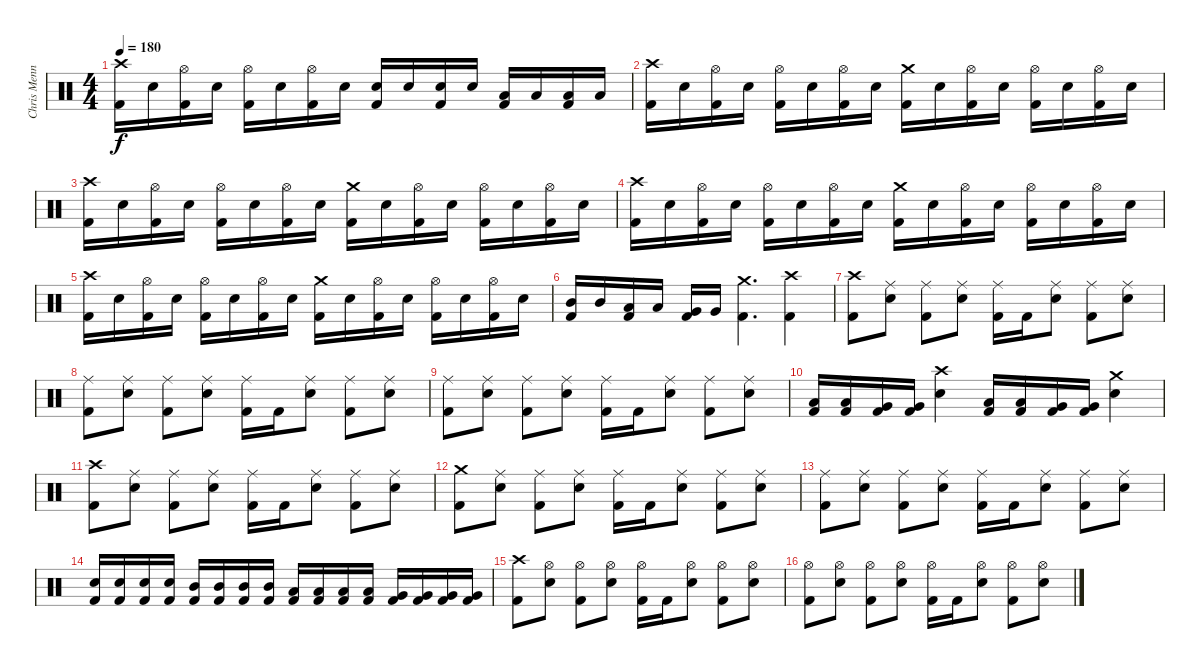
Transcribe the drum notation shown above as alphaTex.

\track ("Chris Menning" "Chris Menn") {instrument percussion}
\staff {score}
\articulation defaults
\ts (4 4)
\tempo 180
\clef neutral
\ks c
("Crash high (hit)" "Kick (hit) 2").16{dy f} "Electric Snare (hit)".16 ("Hi-Hat (open)" "Kick (hit) 2").16 "Electric Snare (hit)".16 ("Hi-Hat (open)" "Kick (hit) 2").16 "Electric Snare (hit)".16 ("Hi-Hat (open)" "Kick (hit) 2").16 "Electric Snare (hit)".16 ("Electric Snare (hit)" "Kick (hit) 2").16 "Electric Snare (hit)".16 ("Electric Snare (hit)" "Kick (hit) 2").16 "Electric Snare (hit)".16 ("Low Tom (hit)" "Kick (hit) 2").16 "Low Tom (hit)".16 ("Low Tom (hit)" "Kick (hit) 2").16 "Low Tom (hit)".16 |
("Crash high (hit)" "Kick (hit) 2").16 "Electric Snare (hit)".16 ("Hi-Hat (open)" "Kick (hit) 2").16 "Electric Snare (hit)".16 ("Hi-Hat (open)" "Kick (hit) 2").16 "Electric Snare (hit)".16 ("Hi-Hat (open)" "Kick (hit) 2").16 "Electric Snare (hit)".16 ("Crash medium (hit)" "Kick (hit) 2").16 "Electric Snare (hit)".16 ("Hi-Hat (open)" "Kick (hit) 2").16 "Electric Snare (hit)".16 ("Hi-Hat (open)" "Kick (hit) 2").16 "Electric Snare (hit)".16 ("Hi-Hat (open)" "Kick (hit) 2").16 "Electric Snare (hit)".16 |
("Crash high (hit)" "Kick (hit) 2").16 "Electric Snare (hit)".16 ("Hi-Hat (open)" "Kick (hit) 2").16 "Electric Snare (hit)".16 ("Hi-Hat (open)" "Kick (hit) 2").16 "Electric Snare (hit)".16 ("Hi-Hat (open)" "Kick (hit) 2").16 "Electric Snare (hit)".16 ("Crash medium (hit)" "Kick (hit) 2").16 "Electric Snare (hit)".16 ("Hi-Hat (open)" "Kick (hit) 2").16 "Electric Snare (hit)".16 ("Hi-Hat (open)" "Kick (hit) 2").16 "Electric Snare (hit)".16 ("Hi-Hat (open)" "Kick (hit) 2").16 "Electric Snare (hit)".16 |
("Crash high (hit)" "Kick (hit) 2").16 "Electric Snare (hit)".16 ("Hi-Hat (open)" "Kick (hit) 2").16 "Electric Snare (hit)".16 ("Hi-Hat (open)" "Kick (hit) 2").16 "Electric Snare (hit)".16 ("Hi-Hat (open)" "Kick (hit) 2").16 "Electric Snare (hit)".16 ("Crash medium (hit)" "Kick (hit) 2").16 "Electric Snare (hit)".16 ("Hi-Hat (open)" "Kick (hit) 2").16 "Electric Snare (hit)".16 ("Hi-Hat (open)" "Kick (hit) 2").16 "Electric Snare (hit)".16 ("Hi-Hat (open)" "Kick (hit) 2").16 "Electric Snare (hit)".16 |
("Crash high (hit)" "Kick (hit) 2").16 "Electric Snare (hit)".16 ("Hi-Hat (open)" "Kick (hit) 2").16 "Electric Snare (hit)".16 ("Hi-Hat (open)" "Kick (hit) 2").16 "Electric Snare (hit)".16 ("Hi-Hat (open)" "Kick (hit) 2").16 "Electric Snare (hit)".16 ("Crash medium (hit)" "Kick (hit) 2").16 "Electric Snare (hit)".16 ("Hi-Hat (open)" "Kick (hit) 2").16 "Electric Snare (hit)".16 ("Hi-Hat (open)" "Kick (hit) 2").16 "Electric Snare (hit)".16 ("Hi-Hat (open)" "Kick (hit) 2").16 "Electric Snare (hit)".16 |
("Mid Tom (hit)" "Kick (hit) 2").16 "Mid Tom (hit)".16 ("Low Tom (hit)" "Kick (hit) 2").16 "Low Tom (hit)".16 ("Very Low Tom (hit)" "Kick (hit) 2").16 "Very Low Tom (hit)".16 ("Crash medium (hit)" "Kick (hit) 2").4{d} ("Crash high (hit)" "Kick (hit) 2").4 |
("Crash high (hit)" "Kick (hit) 2").8 ("Ride (middle)" "Electric Snare (hit)").8 ("Ride (middle)" "Kick (hit) 2").8 ("Ride (middle)" "Electric Snare (hit)").8 ("Ride (middle)" "Kick (hit) 2").16 "Kick (hit) 2".16 ("Ride (middle)" "Electric Snare (hit)").8 ("Ride (middle)" "Kick (hit) 2").8 ("Ride (middle)" "Electric Snare (hit)").8 |
("Ride (middle)" "Kick (hit) 2").8 ("Ride (middle)" "Electric Snare (hit)").8 ("Ride (middle)" "Kick (hit) 2").8 ("Ride (middle)" "Electric Snare (hit)").8 ("Ride (middle)" "Kick (hit) 2").16 "Kick (hit) 2".16 ("Ride (middle)" "Electric Snare (hit)").8 ("Ride (middle)" "Kick (hit) 2").8 ("Ride (middle)" "Electric Snare (hit)").8 |
("Ride (middle)" "Kick (hit) 2").8 ("Ride (middle)" "Electric Snare (hit)").8 ("Ride (middle)" "Kick (hit) 2").8 ("Ride (middle)" "Electric Snare (hit)").8 ("Ride (middle)" "Kick (hit) 2").16 "Kick (hit) 2".16 ("Ride (middle)" "Electric Snare (hit)").8 ("Ride (middle)" "Kick (hit) 2").8 ("Ride (middle)" "Electric Snare (hit)").8 |
("Low Tom (hit)" "Kick (hit) 2").16 ("Low Tom (hit)" "Kick (hit) 2").16 ("Very Low Tom (hit)" "Kick (hit) 2").16 ("Very Low Tom (hit)" "Kick (hit) 2").16 ("Crash high (hit)" "Electric Snare (hit)").4 ("Low Tom (hit)" "Kick (hit) 2").16 ("Low Tom (hit)" "Kick (hit) 2").16 ("Very Low Tom (hit)" "Kick (hit) 2").16 ("Very Low Tom (hit)" "Kick (hit) 2").16 ("Crash medium (hit)" "Electric Snare (hit)").4 |
("Crash high (hit)" "Kick (hit) 2").8 ("Ride (middle)" "Electric Snare (hit)").8 ("Ride (middle)" "Kick (hit) 2").8 ("Ride (middle)" "Electric Snare (hit)").8 ("Ride (middle)" "Kick (hit) 2").16 "Kick (hit) 2".16 ("Ride (middle)" "Electric Snare (hit)").8 ("Ride (middle)" "Kick (hit) 2").8 ("Ride (middle)" "Electric Snare (hit)").8 |
("Crash medium (hit)" "Kick (hit) 2").8 ("Ride (middle)" "Electric Snare (hit)").8 ("Ride (middle)" "Kick (hit) 2").8 ("Ride (middle)" "Electric Snare (hit)").8 ("Ride (middle)" "Kick (hit) 2").16 "Kick (hit) 2".16 ("Ride (middle)" "Electric Snare (hit)").8 ("Ride (middle)" "Kick (hit) 2").8 ("Ride (middle)" "Electric Snare (hit)").8 |
("Ride (middle)" "Kick (hit) 2").8 ("Ride (middle)" "Electric Snare (hit)").8 ("Ride (middle)" "Kick (hit) 2").8 ("Ride (middle)" "Electric Snare (hit)").8 ("Ride (middle)" "Kick (hit) 2").16 "Kick (hit) 2".16 ("Ride (middle)" "Electric Snare (hit)").8 ("Ride (middle)" "Kick (hit) 2").8 ("Ride (middle)" "Electric Snare (hit)").8 |
("Electric Snare (hit)" "Kick (hit) 2").16 ("Electric Snare (hit)" "Kick (hit) 2").16 ("Electric Snare (hit)" "Kick (hit) 2").16 ("Electric Snare (hit)" "Kick (hit) 2").16 ("Mid Tom (hit)" "Kick (hit) 2").16 ("Mid Tom (hit)" "Kick (hit) 2").16 ("Mid Tom (hit)" "Kick (hit) 2").16 ("Mid Tom (hit)" "Kick (hit) 2").16 ("Low Tom (hit)" "Kick (hit) 2").16 ("Low Tom (hit)" "Kick (hit) 2").16 ("Low Tom (hit)" "Kick (hit) 2").16 ("Low Tom (hit)" "Kick (hit) 2").16 ("Very Low Tom (hit)" "Kick (hit) 2").16 ("Very Low Tom (hit)" "Kick (hit) 2").16 ("Very Low Tom (hit)" "Kick (hit) 2").16 ("Very Low Tom (hit)" "Kick (hit) 2").16 |
("Crash high (hit)" "Kick (hit) 2").8 ("Hi-Hat (open)" "Electric Snare (hit)").8 ("Hi-Hat (open)" "Kick (hit) 2").8 ("Hi-Hat (open)" "Electric Snare (hit)").8 ("Hi-Hat (open)" "Kick (hit) 2").16 "Kick (hit) 2".16 ("Hi-Hat (open)" "Electric Snare (hit)").8 ("Hi-Hat (open)" "Kick (hit) 2").8 ("Hi-Hat (open)" "Electric Snare (hit)").8 |
("Hi-Hat (open)" "Kick (hit) 2").8 ("Hi-Hat (open)" "Electric Snare (hit)").8 ("Hi-Hat (open)" "Kick (hit) 2").8 ("Hi-Hat (open)" "Electric Snare (hit)").8 ("Hi-Hat (open)" "Kick (hit) 2").16 "Kick (hit) 2".16 ("Hi-Hat (open)" "Electric Snare (hit)").8 ("Hi-Hat (open)" "Kick (hit) 2").8 ("Hi-Hat (open)" "Electric Snare (hit)").8
